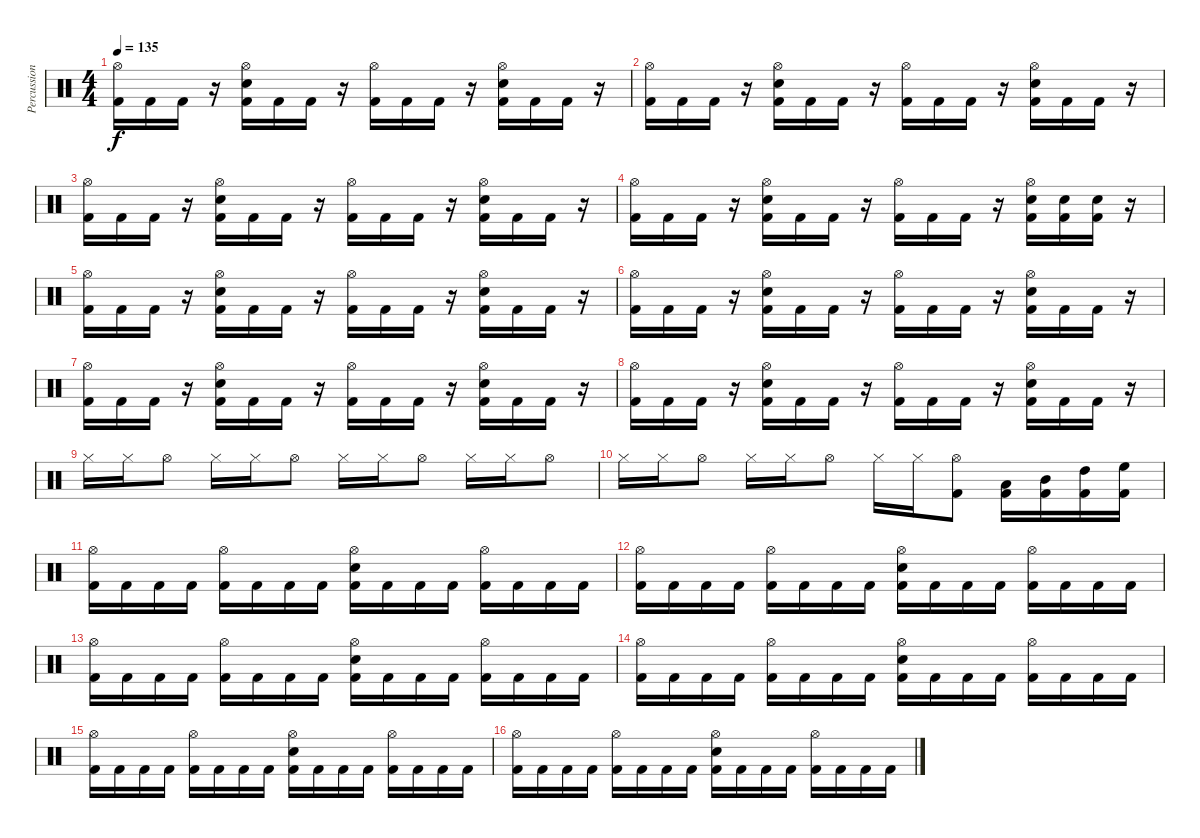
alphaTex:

\track ("Percussion" "Percussion") {instrument percussion}
\staff {score}
\articulation defaults
\ts (4 4)
\tempo 135
\clef neutral
\ks c
("Hi-Hat (open)" "Kick (hit) 2").16{dy f} "Kick (hit) 2".16 "Kick (hit) 2".16 r.16 ("Hi-Hat (open)" "Snare (hit) 2" "Kick (hit) 2").16 "Kick (hit) 2".16 "Kick (hit) 2".16 r.16 ("Hi-Hat (open)" "Kick (hit) 2").16 "Kick (hit) 2".16 "Kick (hit) 2".16 r.16 ("Hi-Hat (open)" "Snare (hit) 2" "Kick (hit) 2").16 "Kick (hit) 2".16 "Kick (hit) 2".16 r.16 |
("Hi-Hat (open)" "Kick (hit) 2").16 "Kick (hit) 2".16 "Kick (hit) 2".16 r.16 ("Hi-Hat (open)" "Snare (hit) 2" "Kick (hit) 2").16 "Kick (hit) 2".16 "Kick (hit) 2".16 r.16 ("Hi-Hat (open)" "Kick (hit) 2").16 "Kick (hit) 2".16 "Kick (hit) 2".16 r.16 ("Hi-Hat (open)" "Snare (hit) 2" "Kick (hit) 2").16 "Kick (hit) 2".16 "Kick (hit) 2".16 r.16 |
("Hi-Hat (open)" "Kick (hit) 2").16 "Kick (hit) 2".16 "Kick (hit) 2".16 r.16 ("Hi-Hat (open)" "Snare (hit) 2" "Kick (hit) 2").16 "Kick (hit) 2".16 "Kick (hit) 2".16 r.16 ("Hi-Hat (open)" "Kick (hit) 2").16 "Kick (hit) 2".16 "Kick (hit) 2".16 r.16 ("Hi-Hat (open)" "Snare (hit) 2" "Kick (hit) 2").16 "Kick (hit) 2".16 "Kick (hit) 2".16 r.16 |
("Hi-Hat (open)" "Kick (hit) 2").16 "Kick (hit) 2".16 "Kick (hit) 2".16 r.16 ("Hi-Hat (open)" "Snare (hit) 2" "Kick (hit) 2").16 "Kick (hit) 2".16 "Kick (hit) 2".16 r.16 ("Hi-Hat (open)" "Kick (hit) 2").16 "Kick (hit) 2".16 "Kick (hit) 2".16 r.16 ("Hi-Hat (open)" "Snare (hit) 2" "Kick (hit) 2").16 ("Snare (hit) 2" "Kick (hit) 2").16 ("Snare (hit) 2" "Kick (hit) 2").16 r.16 |
("Hi-Hat (open)" "Kick (hit) 2").16 "Kick (hit) 2".16 "Kick (hit) 2".16 r.16 ("Hi-Hat (open)" "Snare (hit) 2" "Kick (hit) 2").16 "Kick (hit) 2".16 "Kick (hit) 2".16 r.16 ("Hi-Hat (open)" "Kick (hit) 2").16 "Kick (hit) 2".16 "Kick (hit) 2".16 r.16 ("Hi-Hat (open)" "Snare (hit) 2" "Kick (hit) 2").16 "Kick (hit) 2".16 "Kick (hit) 2".16 r.16 |
("Hi-Hat (open)" "Kick (hit) 2").16 "Kick (hit) 2".16 "Kick (hit) 2".16 r.16 ("Hi-Hat (open)" "Snare (hit) 2" "Kick (hit) 2").16 "Kick (hit) 2".16 "Kick (hit) 2".16 r.16 ("Hi-Hat (open)" "Kick (hit) 2").16 "Kick (hit) 2".16 "Kick (hit) 2".16 r.16 ("Hi-Hat (open)" "Snare (hit) 2" "Kick (hit) 2").16 "Kick (hit) 2".16 "Kick (hit) 2".16 r.16 |
("Hi-Hat (open)" "Kick (hit) 2").16 "Kick (hit) 2".16 "Kick (hit) 2".16 r.16 ("Hi-Hat (open)" "Snare (hit) 2" "Kick (hit) 2").16 "Kick (hit) 2".16 "Kick (hit) 2".16 r.16 ("Hi-Hat (open)" "Kick (hit) 2").16 "Kick (hit) 2".16 "Kick (hit) 2".16 r.16 ("Hi-Hat (open)" "Snare (hit) 2" "Kick (hit) 2").16 "Kick (hit) 2".16 "Kick (hit) 2".16 r.16 |
("Hi-Hat (open)" "Kick (hit) 2").16 "Kick (hit) 2".16 "Kick (hit) 2".16 r.16 ("Hi-Hat (open)" "Snare (hit) 2" "Kick (hit) 2").16 "Kick (hit) 2".16 "Kick (hit) 2".16 r.16 ("Hi-Hat (open)" "Kick (hit) 2").16 "Kick (hit) 2".16 "Kick (hit) 2".16 r.16 ("Hi-Hat (open)" "Snare (hit) 2" "Kick (hit) 2").16 "Kick (hit) 2".16 "Kick (hit) 2".16 r.16 |
"Hi-Hat (closed)".16 "Hi-Hat (closed)".16 "Hi-Hat (open)".8 "Hi-Hat (closed)".16 "Hi-Hat (closed)".16 "Hi-Hat (open)".8 "Hi-Hat (closed)".16 "Hi-Hat (closed)".16 "Hi-Hat (open)".8 "Hi-Hat (closed)".16 "Hi-Hat (closed)".16 "Hi-Hat (open)".8 |
"Hi-Hat (closed)".16 "Hi-Hat (closed)".16 "Hi-Hat (open)".8 "Hi-Hat (closed)".16 "Hi-Hat (closed)".16 "Hi-Hat (open)".8 "Hi-Hat (closed)".16 "Hi-Hat (closed)".16 ("Hi-Hat (open)" "Kick (hit) 2").8 ("Low Tom (hit)" "Kick (hit) 2").16 ("Mid Tom (hit)" "Kick (hit) 2").16 ("High Tom (hit)" "Kick (hit) 2").16 ("High Floor Tom (hit)" "Kick (hit) 2").16 |
("Hi-Hat (open)" "Kick (hit) 2").16 "Kick (hit) 2".16 "Kick (hit) 2".16 "Kick (hit) 2".16 ("Hi-Hat (open)" "Kick (hit) 2").16 "Kick (hit) 2".16 "Kick (hit) 2".16 "Kick (hit) 2".16 ("Hi-Hat (open)" "Snare (hit) 2" "Kick (hit) 2").16 "Kick (hit) 2".16 "Kick (hit) 2".16 "Kick (hit) 2".16 ("Hi-Hat (open)" "Kick (hit) 2").16 "Kick (hit) 2".16 "Kick (hit) 2".16 "Kick (hit) 2".16 |
("Hi-Hat (open)" "Kick (hit) 2").16 "Kick (hit) 2".16 "Kick (hit) 2".16 "Kick (hit) 2".16 ("Hi-Hat (open)" "Kick (hit) 2").16 "Kick (hit) 2".16 "Kick (hit) 2".16 "Kick (hit) 2".16 ("Hi-Hat (open)" "Snare (hit) 2" "Kick (hit) 2").16 "Kick (hit) 2".16 "Kick (hit) 2".16 "Kick (hit) 2".16 ("Hi-Hat (open)" "Kick (hit) 2").16 "Kick (hit) 2".16 "Kick (hit) 2".16 "Kick (hit) 2".16 |
("Hi-Hat (open)" "Kick (hit) 2").16 "Kick (hit) 2".16 "Kick (hit) 2".16 "Kick (hit) 2".16 ("Hi-Hat (open)" "Kick (hit) 2").16 "Kick (hit) 2".16 "Kick (hit) 2".16 "Kick (hit) 2".16 ("Hi-Hat (open)" "Snare (hit) 2" "Kick (hit) 2").16 "Kick (hit) 2".16 "Kick (hit) 2".16 "Kick (hit) 2".16 ("Hi-Hat (open)" "Kick (hit) 2").16 "Kick (hit) 2".16 "Kick (hit) 2".16 "Kick (hit) 2".16 |
("Hi-Hat (open)" "Kick (hit) 2").16 "Kick (hit) 2".16 "Kick (hit) 2".16 "Kick (hit) 2".16 ("Hi-Hat (open)" "Kick (hit) 2").16 "Kick (hit) 2".16 "Kick (hit) 2".16 "Kick (hit) 2".16 ("Hi-Hat (open)" "Snare (hit) 2" "Kick (hit) 2").16 "Kick (hit) 2".16 "Kick (hit) 2".16 "Kick (hit) 2".16 ("Hi-Hat (open)" "Kick (hit) 2").16 "Kick (hit) 2".16 "Kick (hit) 2".16 "Kick (hit) 2".16 |
("Hi-Hat (open)" "Kick (hit) 2").16 "Kick (hit) 2".16 "Kick (hit) 2".16 "Kick (hit) 2".16 ("Hi-Hat (open)" "Kick (hit) 2").16 "Kick (hit) 2".16 "Kick (hit) 2".16 "Kick (hit) 2".16 ("Hi-Hat (open)" "Snare (hit) 2" "Kick (hit) 2").16 "Kick (hit) 2".16 "Kick (hit) 2".16 "Kick (hit) 2".16 ("Hi-Hat (open)" "Kick (hit) 2").16 "Kick (hit) 2".16 "Kick (hit) 2".16 "Kick (hit) 2".16 |
("Hi-Hat (open)" "Kick (hit) 2").16 "Kick (hit) 2".16 "Kick (hit) 2".16 "Kick (hit) 2".16 ("Hi-Hat (open)" "Kick (hit) 2").16 "Kick (hit) 2".16 "Kick (hit) 2".16 "Kick (hit) 2".16 ("Hi-Hat (open)" "Snare (hit) 2" "Kick (hit) 2").16 "Kick (hit) 2".16 "Kick (hit) 2".16 "Kick (hit) 2".16 ("Hi-Hat (open)" "Kick (hit) 2").16 "Kick (hit) 2".16 "Kick (hit) 2".16 "Kick (hit) 2".16
